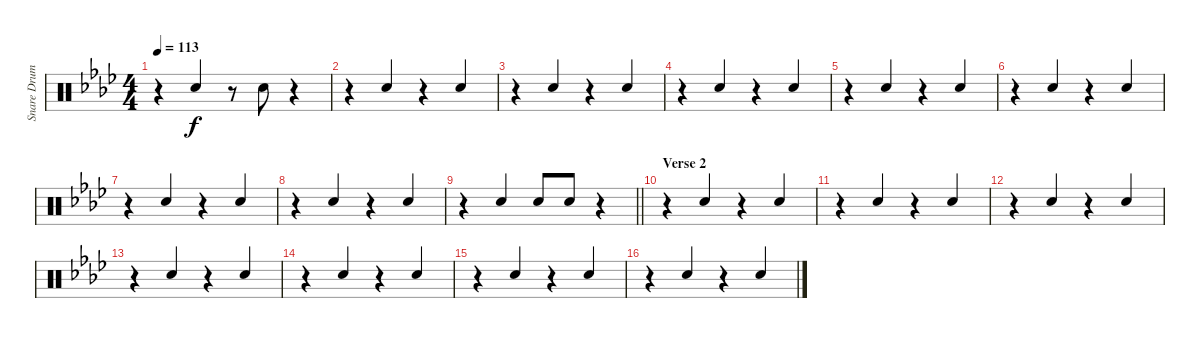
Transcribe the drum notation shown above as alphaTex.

\track ("Snare Drum - reverb" "Snare Drum") {instrument percussion}
\staff {score}
\articulation defaults
\ts (4 4)
\tempo 113
\clef neutral
\ks fminor
r.4{dy f} "Snare (hit) 2".4{beam Up} r.8 "Snare (hit) 2".8 r.4 |
r.4 "Snare (hit) 2".4{beam Up} r.4 "Snare (hit) 2".4{beam Up} |
r.4 "Snare (hit) 2".4{beam Up} r.4 "Snare (hit) 2".4{beam Up} |
r.4 "Snare (hit) 2".4{beam Up} r.4 "Snare (hit) 2".4{beam Up} |
r.4 "Snare (hit) 2".4{beam Up} r.4 "Snare (hit) 2".4{beam Up} |
r.4 "Snare (hit) 2".4{beam Up} r.4 "Snare (hit) 2".4{beam Up} |
r.4 "Snare (hit) 2".4{beam Up} r.4 "Snare (hit) 2".4{beam Up} |
r.4 "Snare (hit) 2".4{beam Up} r.4 "Snare (hit) 2".4{beam Up} |
\barLineRight lightlight
r.4 "Snare (hit) 2".4{beam Up} "Snare (hit) 2".8{beam Up} "Snare (hit) 2".8{beam Up} r.4 |
\section ("" "Verse 2")
r.4 "Snare (hit) 2".4{beam Up} r.4 "Snare (hit) 2".4{beam Up} |
r.4 "Snare (hit) 2".4{beam Up} r.4 "Snare (hit) 2".4{beam Up} |
r.4 "Snare (hit) 2".4{beam Up} r.4 "Snare (hit) 2".4{beam Up} |
r.4 "Snare (hit) 2".4{beam Up} r.4 "Snare (hit) 2".4{beam Up} |
r.4 "Snare (hit) 2".4{beam Up} r.4 "Snare (hit) 2".4{beam Up} |
r.4 "Snare (hit) 2".4{beam Up} r.4 "Snare (hit) 2".4{beam Up} |
r.4 "Snare (hit) 2".4{beam Up} r.4 "Snare (hit) 2".4{beam Up}
